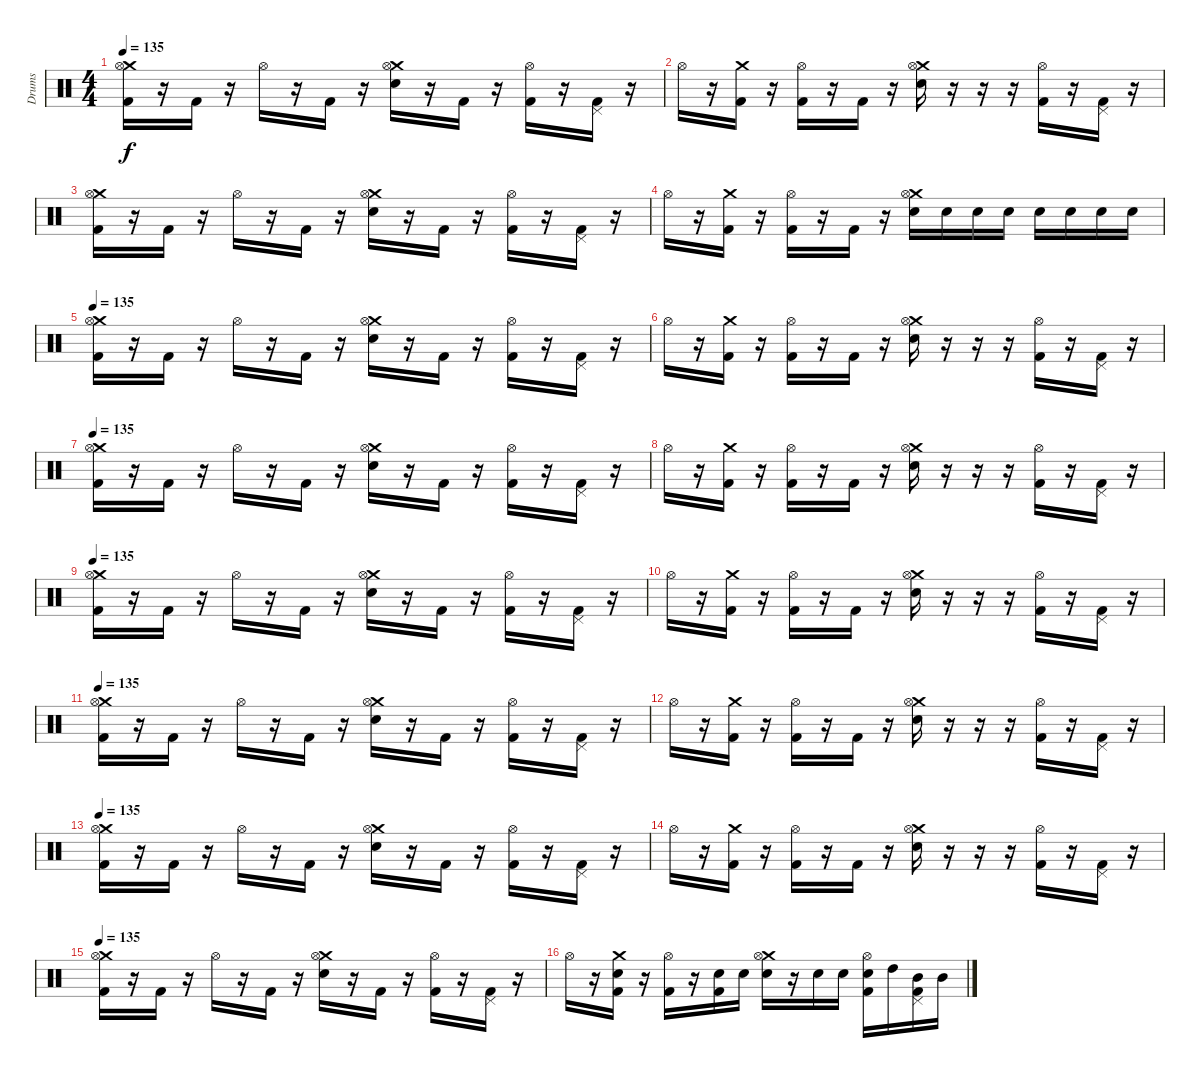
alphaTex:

\track ("Drums" "Drums") {instrument percussion}
\staff {score}
\articulation defaults
\ts (4 4)
\tempo 135
\clef neutral
\ks c
("Crash medium (hit)" "Hi-Hat (open)" "Kick (hit) 2").16{dy f} r.16 "Kick (hit) 2".16 r.16 "Hi-Hat (open)".16 r.16 "Kick (hit) 2".16 r.16 ("Crash medium (hit)" "Hi-Hat (open)" "Electric Snare (hit)").16 r.16 "Kick (hit) 2".16 r.16 ("Hi-Hat (open)" "Kick (hit) 2").16 r.16 ("Pedal Hi-Hat (hit)" "Kick (hit) 2").16 r.16 |
"Hi-Hat (open)".16 r.16 ("Crash medium (hit)" "Kick (hit) 2").16 r.16 ("Hi-Hat (open)" "Kick (hit) 2").16 r.16 "Kick (hit) 2".16 r.16 ("Crash medium (hit)" "Hi-Hat (open)" "Electric Snare (hit)").16 r.16 r.16 r.16 ("Hi-Hat (open)" "Kick (hit) 2").16 r.16 ("Pedal Hi-Hat (hit)" "Kick (hit) 2").16 r.16 |
("Crash medium (hit)" "Hi-Hat (open)" "Kick (hit) 2").16 r.16 "Kick (hit) 2".16 r.16 "Hi-Hat (open)".16 r.16 "Kick (hit) 2".16 r.16 ("Crash medium (hit)" "Hi-Hat (open)" "Electric Snare (hit)").16 r.16 "Kick (hit) 2".16 r.16 ("Hi-Hat (open)" "Kick (hit) 2").16 r.16 ("Pedal Hi-Hat (hit)" "Kick (hit) 2").16 r.16 |
"Hi-Hat (open)".16 r.16 ("Crash medium (hit)" "Kick (hit) 2").16 r.16 ("Hi-Hat (open)" "Kick (hit) 2").16 r.16 "Kick (hit) 2".16 r.16 ("Crash medium (hit)" "Hi-Hat (open)" "Electric Snare (hit)").16 "Electric Snare (hit)".16 "Electric Snare (hit)".16 "Electric Snare (hit)".16 "Electric Snare (hit)".16 "Electric Snare (hit)".16 "Electric Snare (hit)".16 "Electric Snare (hit)".16 |
\tempo 135
("Crash medium (hit)" "Hi-Hat (open)" "Kick (hit) 2").16 r.16 "Kick (hit) 2".16 r.16 "Hi-Hat (open)".16 r.16 "Kick (hit) 2".16 r.16 ("Crash medium (hit)" "Hi-Hat (open)" "Electric Snare (hit)").16 r.16 "Kick (hit) 2".16 r.16 ("Hi-Hat (open)" "Kick (hit) 2").16 r.16 ("Pedal Hi-Hat (hit)" "Kick (hit) 2").16 r.16 |
"Hi-Hat (open)".16 r.16 ("Crash medium (hit)" "Kick (hit) 2").16 r.16 ("Hi-Hat (open)" "Kick (hit) 2").16 r.16 "Kick (hit) 2".16 r.16 ("Crash medium (hit)" "Hi-Hat (open)" "Electric Snare (hit)").16 r.16 r.16 r.16 ("Hi-Hat (open)" "Kick (hit) 2").16 r.16 ("Pedal Hi-Hat (hit)" "Kick (hit) 2").16 r.16 |
\tempo 135
("Crash medium (hit)" "Hi-Hat (open)" "Kick (hit) 2").16 r.16 "Kick (hit) 2".16 r.16 "Hi-Hat (open)".16 r.16 "Kick (hit) 2".16 r.16 ("Crash medium (hit)" "Hi-Hat (open)" "Electric Snare (hit)").16 r.16 "Kick (hit) 2".16 r.16 ("Hi-Hat (open)" "Kick (hit) 2").16 r.16 ("Pedal Hi-Hat (hit)" "Kick (hit) 2").16 r.16 |
"Hi-Hat (open)".16 r.16 ("Crash medium (hit)" "Kick (hit) 2").16 r.16 ("Hi-Hat (open)" "Kick (hit) 2").16 r.16 "Kick (hit) 2".16 r.16 ("Crash medium (hit)" "Hi-Hat (open)" "Electric Snare (hit)").16 r.16 r.16 r.16 ("Hi-Hat (open)" "Kick (hit) 2").16 r.16 ("Pedal Hi-Hat (hit)" "Kick (hit) 2").16 r.16 |
\tempo 135
("Crash medium (hit)" "Hi-Hat (open)" "Kick (hit) 2").16 r.16 "Kick (hit) 2".16 r.16 "Hi-Hat (open)".16 r.16 "Kick (hit) 2".16 r.16 ("Crash medium (hit)" "Hi-Hat (open)" "Electric Snare (hit)").16 r.16 "Kick (hit) 2".16 r.16 ("Hi-Hat (open)" "Kick (hit) 2").16 r.16 ("Pedal Hi-Hat (hit)" "Kick (hit) 2").16 r.16 |
"Hi-Hat (open)".16 r.16 ("Crash medium (hit)" "Kick (hit) 2").16 r.16 ("Hi-Hat (open)" "Kick (hit) 2").16 r.16 "Kick (hit) 2".16 r.16 ("Crash medium (hit)" "Hi-Hat (open)" "Electric Snare (hit)").16 r.16 r.16 r.16 ("Hi-Hat (open)" "Kick (hit) 2").16 r.16 ("Pedal Hi-Hat (hit)" "Kick (hit) 2").16 r.16 |
\tempo 135
("Crash medium (hit)" "Hi-Hat (open)" "Kick (hit) 2").16 r.16 "Kick (hit) 2".16 r.16 "Hi-Hat (open)".16 r.16 "Kick (hit) 2".16 r.16 ("Crash medium (hit)" "Hi-Hat (open)" "Electric Snare (hit)").16 r.16 "Kick (hit) 2".16 r.16 ("Hi-Hat (open)" "Kick (hit) 2").16 r.16 ("Pedal Hi-Hat (hit)" "Kick (hit) 2").16 r.16 |
"Hi-Hat (open)".16 r.16 ("Crash medium (hit)" "Kick (hit) 2").16 r.16 ("Hi-Hat (open)" "Kick (hit) 2").16 r.16 "Kick (hit) 2".16 r.16 ("Crash medium (hit)" "Hi-Hat (open)" "Electric Snare (hit)").16 r.16 r.16 r.16 ("Hi-Hat (open)" "Kick (hit) 2").16 r.16 ("Pedal Hi-Hat (hit)" "Kick (hit) 2").16 r.16 |
\tempo 135
("Crash medium (hit)" "Hi-Hat (open)" "Kick (hit) 2").16 r.16 "Kick (hit) 2".16 r.16 "Hi-Hat (open)".16 r.16 "Kick (hit) 2".16 r.16 ("Crash medium (hit)" "Hi-Hat (open)" "Electric Snare (hit)").16 r.16 "Kick (hit) 2".16 r.16 ("Hi-Hat (open)" "Kick (hit) 2").16 r.16 ("Pedal Hi-Hat (hit)" "Kick (hit) 2").16 r.16 |
"Hi-Hat (open)".16 r.16 ("Crash medium (hit)" "Kick (hit) 2").16 r.16 ("Hi-Hat (open)" "Kick (hit) 2").16 r.16 "Kick (hit) 2".16 r.16 ("Crash medium (hit)" "Hi-Hat (open)" "Electric Snare (hit)").16 r.16 r.16 r.16 ("Hi-Hat (open)" "Kick (hit) 2").16 r.16 ("Pedal Hi-Hat (hit)" "Kick (hit) 2").16 r.16 |
\tempo 135
("Crash medium (hit)" "Hi-Hat (open)" "Kick (hit) 2").16 r.16 "Kick (hit) 2".16 r.16 "Hi-Hat (open)".16 r.16 "Kick (hit) 2".16 r.16 ("Crash medium (hit)" "Hi-Hat (open)" "Electric Snare (hit)").16 r.16 "Kick (hit) 2".16 r.16 ("Hi-Hat (open)" "Kick (hit) 2").16 r.16 ("Pedal Hi-Hat (hit)" "Kick (hit) 2").16 r.16 |
"Hi-Hat (open)".16 r.16 ("Crash medium (hit)" "Electric Snare (hit)" "Kick (hit) 2").16 r.16 ("Hi-Hat (open)" "Kick (hit) 2").16 r.16 ("Electric Snare (hit)" "Kick (hit) 2").16 "Electric Snare (hit)".16 ("Crash medium (hit)" "Hi-Hat (open)" "Electric Snare (hit)").16 r.16 "Electric Snare (hit)".16 "Electric Snare (hit)".16 ("Hi-Hat (open)" "Electric Snare (hit)" "Kick (hit) 2").16 "High Tom (hit)".16 ("Pedal Hi-Hat (hit)" "Mid Tom (hit)" "Kick (hit) 2").16 "Mid Tom (hit)".16
